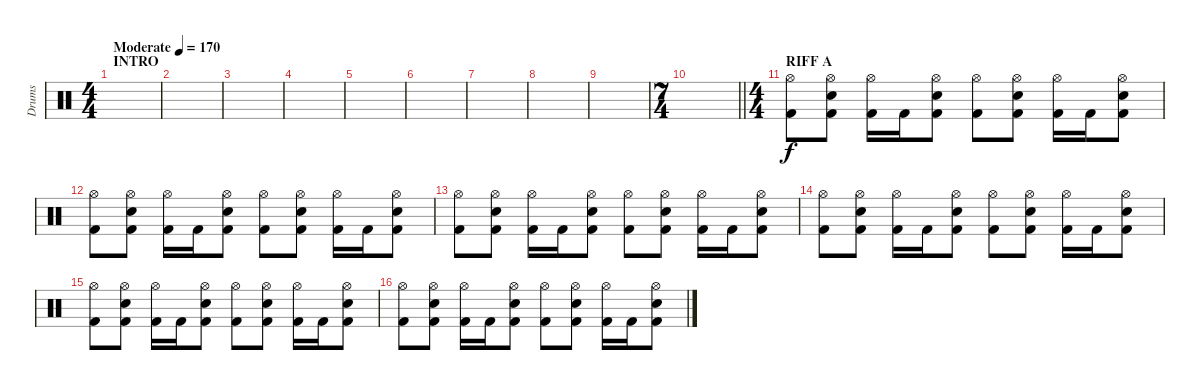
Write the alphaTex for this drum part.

\track ("Drums" "Drums") {instrument percussion}
\staff {score}
\articulation defaults
\ts (4 4)
\section ("" "INTRO")
\tempo (170 "Moderate")
\clef neutral
\ks c
|
|
|
|
|
|
|
|
|
\ts (7 4)
\barLineRight lightlight
|
\ts (4 4)
\section ("" "RIFF A")
("Hi-Hat (open)" "Kick (hit) 2").8 ("Hi-Hat (open)" "Snare (hit) 2" "Kick (hit) 2").8 ("Hi-Hat (open)" "Kick (hit) 2").16 "Kick (hit) 2".16 ("Hi-Hat (open)" "Snare (hit) 2" "Kick (hit) 2").8 ("Hi-Hat (open)" "Kick (hit) 2").8 ("Hi-Hat (open)" "Snare (hit) 2" "Kick (hit) 2").8 ("Hi-Hat (open)" "Kick (hit) 2").16 "Kick (hit) 2".16 ("Hi-Hat (open)" "Snare (hit) 2" "Kick (hit) 2").8 |
("Hi-Hat (open)" "Kick (hit) 2").8 ("Hi-Hat (open)" "Snare (hit) 2" "Kick (hit) 2").8 ("Hi-Hat (open)" "Kick (hit) 2").16 "Kick (hit) 2".16 ("Hi-Hat (open)" "Snare (hit) 2" "Kick (hit) 2").8 ("Hi-Hat (open)" "Kick (hit) 2").8 ("Hi-Hat (open)" "Snare (hit) 2" "Kick (hit) 2").8 ("Hi-Hat (open)" "Kick (hit) 2").16 "Kick (hit) 2".16 ("Hi-Hat (open)" "Snare (hit) 2" "Kick (hit) 2").8 |
("Hi-Hat (open)" "Kick (hit) 2").8 ("Hi-Hat (open)" "Snare (hit) 2" "Kick (hit) 2").8 ("Hi-Hat (open)" "Kick (hit) 2").16 "Kick (hit) 2".16 ("Hi-Hat (open)" "Snare (hit) 2" "Kick (hit) 2").8 ("Hi-Hat (open)" "Kick (hit) 2").8 ("Hi-Hat (open)" "Snare (hit) 2" "Kick (hit) 2").8 ("Hi-Hat (open)" "Kick (hit) 2").16 "Kick (hit) 2".16 ("Hi-Hat (open)" "Snare (hit) 2" "Kick (hit) 2").8 |
("Hi-Hat (open)" "Kick (hit) 2").8 ("Hi-Hat (open)" "Snare (hit) 2" "Kick (hit) 2").8 ("Hi-Hat (open)" "Kick (hit) 2").16 "Kick (hit) 2".16 ("Hi-Hat (open)" "Snare (hit) 2" "Kick (hit) 2").8 ("Hi-Hat (open)" "Kick (hit) 2").8 ("Hi-Hat (open)" "Snare (hit) 2" "Kick (hit) 2").8 ("Hi-Hat (open)" "Kick (hit) 2").16 "Kick (hit) 2".16 ("Hi-Hat (open)" "Snare (hit) 2" "Kick (hit) 2").8 |
("Hi-Hat (open)" "Kick (hit) 2").8 ("Hi-Hat (open)" "Snare (hit) 2" "Kick (hit) 2").8 ("Hi-Hat (open)" "Kick (hit) 2").16 "Kick (hit) 2".16 ("Hi-Hat (open)" "Snare (hit) 2" "Kick (hit) 2").8 ("Hi-Hat (open)" "Kick (hit) 2").8 ("Hi-Hat (open)" "Snare (hit) 2" "Kick (hit) 2").8 ("Hi-Hat (open)" "Kick (hit) 2").16 "Kick (hit) 2".16 ("Hi-Hat (open)" "Snare (hit) 2" "Kick (hit) 2").8 |
("Hi-Hat (open)" "Kick (hit) 2").8 ("Hi-Hat (open)" "Snare (hit) 2" "Kick (hit) 2").8 ("Hi-Hat (open)" "Kick (hit) 2").16 "Kick (hit) 2".16 ("Hi-Hat (open)" "Snare (hit) 2" "Kick (hit) 2").8 ("Hi-Hat (open)" "Kick (hit) 2").8 ("Hi-Hat (open)" "Snare (hit) 2" "Kick (hit) 2").8 ("Hi-Hat (open)" "Kick (hit) 2").16 "Kick (hit) 2".16 ("Hi-Hat (open)" "Snare (hit) 2" "Kick (hit) 2").8
